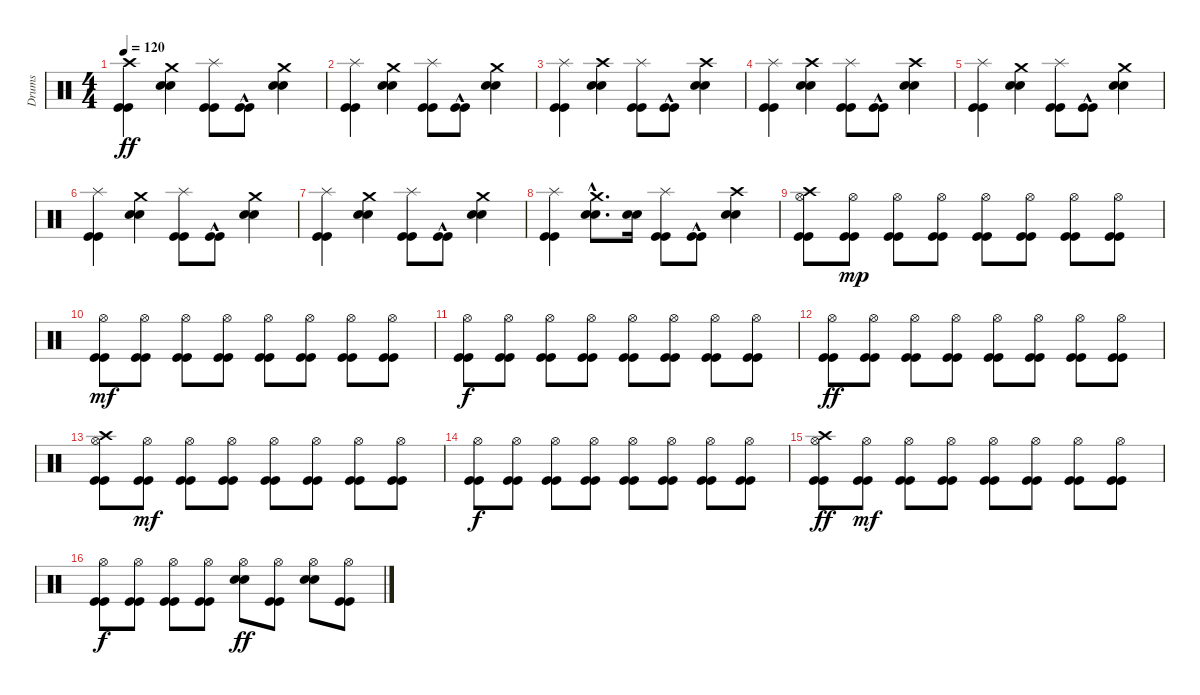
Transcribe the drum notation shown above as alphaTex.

\track ("Drums" "Drums") {instrument percussion}
\staff {score}
\articulation defaults
\ts (4 4)
\tempo 120
\clef neutral
\ks c
("Kick (hit)" "Kick (hit)" "Crash high (hit)").4{dy ff} ("Snare (hit) 2" "Snare (hit) 2" "Crash medium (hit)").4 ("Kick (hit)" "Kick (hit)" "Splash (hit)").8 ("Kick (hit)"{hac} "Kick (hit)"{hac}).8 ("Snare (hit) 2" "Snare (hit) 2" "Crash medium (hit)").4 |
("Kick (hit)" "Kick (hit)" "Splash (hit)").4 ("Snare (hit) 2" "Snare (hit) 2" "Crash medium (hit)").4 ("Kick (hit)" "Kick (hit)" "Splash (hit)").8 ("Kick (hit)"{hac} "Kick (hit)"{hac}).8 ("Snare (hit) 2" "Snare (hit) 2" "Crash medium (hit)").4 |
("Kick (hit)" "Kick (hit)" "Splash (hit)").4 ("Snare (hit) 2" "Snare (hit) 2" "Crash high (hit)").4 ("Kick (hit)" "Kick (hit)" "Splash (hit)").8 ("Kick (hit)"{hac} "Kick (hit)"{hac}).8 ("Snare (hit) 2" "Snare (hit) 2" "Crash high (hit)").4 |
("Kick (hit)" "Kick (hit)" "Splash (hit)").4 ("Snare (hit) 2" "Snare (hit) 2" "Crash high (hit)").4 ("Kick (hit)" "Kick (hit)" "Splash (hit)").8 ("Kick (hit)"{hac} "Kick (hit)"{hac}).8 ("Snare (hit) 2" "Snare (hit) 2" "Crash high (hit)").4 |
("Kick (hit)" "Kick (hit)" "Splash (hit)").4 ("Snare (hit) 2" "Snare (hit) 2" "Crash medium (hit)").4 ("Kick (hit)" "Kick (hit)" "Splash (hit)").8 ("Kick (hit)"{hac} "Kick (hit)"{hac}).8 ("Snare (hit) 2" "Snare (hit) 2" "Crash medium (hit)").4 |
("Kick (hit)" "Kick (hit)" "Splash (hit)").4 ("Snare (hit) 2" "Snare (hit) 2" "Crash medium (hit)").4 ("Kick (hit)" "Kick (hit)" "Splash (hit)").8 ("Kick (hit)"{hac} "Kick (hit)"{hac}).8 ("Snare (hit) 2" "Snare (hit) 2" "Crash medium (hit)").4 |
("Kick (hit)" "Kick (hit)" "Splash (hit)").4 ("Snare (hit) 2" "Snare (hit) 2" "Crash medium (hit)").4 ("Kick (hit)" "Kick (hit)" "Splash (hit)").8 ("Kick (hit)"{hac} "Kick (hit)"{hac}).8 ("Snare (hit) 2" "Snare (hit) 2" "Crash medium (hit)").4 |
("Kick (hit)" "Kick (hit)" "Splash (hit)").4 ("Snare (hit) 2"{hac} "Snare (hit) 2"{hac} "Crash medium (hit)").8{d} ("Snare (hit) 2" "Snare (hit) 2").16 ("Kick (hit)" "Kick (hit)" "Splash (hit)").8 ("Kick (hit)"{hac} "Kick (hit)"{hac}).8 ("Snare (hit) 2" "Snare (hit) 2" "Crash high (hit)").4 |
("Kick (hit)" "Kick (hit)" "Hi-Hat (open)" "Crash high (hit)").8 ("Kick (hit)" "Kick (hit)" "Hi-Hat (open)").8{dy mp} ("Kick (hit)" "Kick (hit)" "Hi-Hat (open)").8 ("Kick (hit)" "Kick (hit)" "Hi-Hat (open)").8 ("Kick (hit)" "Kick (hit)" "Hi-Hat (open)").8 ("Kick (hit)" "Kick (hit)" "Hi-Hat (open)").8 ("Kick (hit)" "Kick (hit)" "Hi-Hat (open)").8 ("Kick (hit)" "Kick (hit)" "Hi-Hat (open)").8 |
("Kick (hit)" "Kick (hit)" "Hi-Hat (open)").8{dy mf} ("Kick (hit)" "Kick (hit)" "Hi-Hat (open)").8 ("Kick (hit)" "Kick (hit)" "Hi-Hat (open)").8 ("Kick (hit)" "Kick (hit)" "Hi-Hat (open)").8 ("Kick (hit)" "Kick (hit)" "Hi-Hat (open)").8 ("Kick (hit)" "Kick (hit)" "Hi-Hat (open)").8 ("Kick (hit)" "Kick (hit)" "Hi-Hat (open)").8 ("Kick (hit)" "Kick (hit)" "Hi-Hat (open)").8 |
("Kick (hit)" "Kick (hit)" "Hi-Hat (open)").8{dy f} ("Kick (hit)" "Kick (hit)" "Hi-Hat (open)").8 ("Kick (hit)" "Kick (hit)" "Hi-Hat (open)").8 ("Kick (hit)" "Kick (hit)" "Hi-Hat (open)").8 ("Kick (hit)" "Kick (hit)" "Hi-Hat (open)").8 ("Kick (hit)" "Kick (hit)" "Hi-Hat (open)").8 ("Kick (hit)" "Kick (hit)" "Hi-Hat (open)").8 ("Kick (hit)" "Kick (hit)" "Hi-Hat (open)").8 |
("Kick (hit)" "Kick (hit)" "Hi-Hat (open)").8{dy ff} ("Kick (hit)" "Kick (hit)" "Hi-Hat (open)").8 ("Kick (hit)" "Kick (hit)" "Hi-Hat (open)").8 ("Kick (hit)" "Kick (hit)" "Hi-Hat (open)").8 ("Kick (hit)" "Kick (hit)" "Hi-Hat (open)").8 ("Kick (hit)" "Kick (hit)" "Hi-Hat (open)").8 ("Kick (hit)" "Kick (hit)" "Hi-Hat (open)").8 ("Kick (hit)" "Kick (hit)" "Hi-Hat (open)").8 |
("Kick (hit)" "Kick (hit)" "Hi-Hat (open)" "Crash high (hit)").8 ("Kick (hit)" "Kick (hit)" "Hi-Hat (open)").8{dy mf} ("Kick (hit)" "Kick (hit)" "Hi-Hat (open)").8 ("Kick (hit)" "Kick (hit)" "Hi-Hat (open)").8 ("Kick (hit)" "Kick (hit)" "Hi-Hat (open)").8 ("Kick (hit)" "Kick (hit)" "Hi-Hat (open)").8 ("Kick (hit)" "Kick (hit)" "Hi-Hat (open)").8 ("Kick (hit)" "Kick (hit)" "Hi-Hat (open)").8 |
("Kick (hit)" "Kick (hit)" "Hi-Hat (open)").8{dy f} ("Kick (hit)" "Kick (hit)" "Hi-Hat (open)").8 ("Kick (hit)" "Kick (hit)" "Hi-Hat (open)").8 ("Kick (hit)" "Kick (hit)" "Hi-Hat (open)").8 ("Kick (hit)" "Kick (hit)" "Hi-Hat (open)").8 ("Kick (hit)" "Kick (hit)" "Hi-Hat (open)").8 ("Kick (hit)" "Kick (hit)" "Hi-Hat (open)").8 ("Kick (hit)" "Kick (hit)" "Hi-Hat (open)").8 |
("Kick (hit)" "Kick (hit)" "Hi-Hat (open)" "Crash high (hit)").8{dy ff} ("Kick (hit)" "Kick (hit)" "Hi-Hat (open)").8{dy mf} ("Kick (hit)" "Kick (hit)" "Hi-Hat (open)").8 ("Kick (hit)" "Kick (hit)" "Hi-Hat (open)").8 ("Kick (hit)" "Kick (hit)" "Hi-Hat (open)").8 ("Kick (hit)" "Kick (hit)" "Hi-Hat (open)").8 ("Kick (hit)" "Kick (hit)" "Hi-Hat (open)").8 ("Kick (hit)" "Kick (hit)" "Hi-Hat (open)").8 |
("Kick (hit)" "Kick (hit)" "Hi-Hat (open)").8{dy f} ("Kick (hit)" "Kick (hit)" "Hi-Hat (open)").8 ("Kick (hit)" "Kick (hit)" "Hi-Hat (open)").8 ("Kick (hit)" "Kick (hit)" "Hi-Hat (open)").8 ("Snare (hit) 2" "Snare (hit) 2" "Hi-Hat (open)").8{dy ff} ("Kick (hit)" "Kick (hit)" "Hi-Hat (open)").8 ("Snare (hit) 2" "Snare (hit) 2" "Hi-Hat (open)").8 ("Kick (hit)" "Kick (hit)" "Hi-Hat (open)").8
